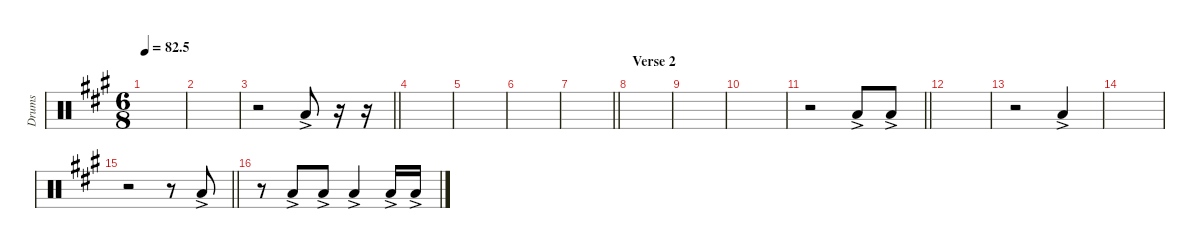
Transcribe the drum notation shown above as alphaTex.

\defaultSystemsLayout 4
\hideDynamics
\bracketExtendMode nobrackets
\otherSystemsTrackNameOrientation horizontal
\track ("Tom 03" "Drums") {instrument percussion}
\staff {score}
\articulation defaults
\ts (6 8)
\tempo
82.5
\accidentals auto
\clef neutral
\ottava regular
\simile none
\scale
0.333333
\ks a
|
\scale
0.333333 |
\scale
0.333333
\barLineRight lightlight
r.2 "Low Tom (hit)"{ac acc forcenatural}.8 r.16 r.16 |
\scale
0.333333 |
\scale
0.333333 |
\scale
0.333333 |
\scale
0.333333
\barLineRight lightlight
|
\section ("" "Verse 2")
\scale
0.333333 |
\scale
0.333333 |
\scale
0.333333 |
\scale
0.333333
\barLineRight lightlight
r.2 "Low Tom (hit)"{ac acc forcenatural}.8 "Low Tom (hit)"{ac acc forcenatural}.8 |
\scale
0.333333 |
\scale
0.333333 r.2 "Low Tom (hit)"{ac acc forcenatural}.4 |
\scale
0.333333 |
\scale
0.333333
\barLineRight lightlight
r.2 r.8 "Low Tom (hit)"{ac acc forcenatural}.8 |
\scale
0.333333 r.8 "Low Tom (hit)"{ac acc forcenatural}.8 "Low Tom (hit)"{ac acc forcenatural}.8 "Low Tom (hit)"{ac acc forcenatural}.4 "Low Tom (hit)"{ac acc forcenatural}.16 "Low Tom (hit)"{ac acc forcenatural}.16
